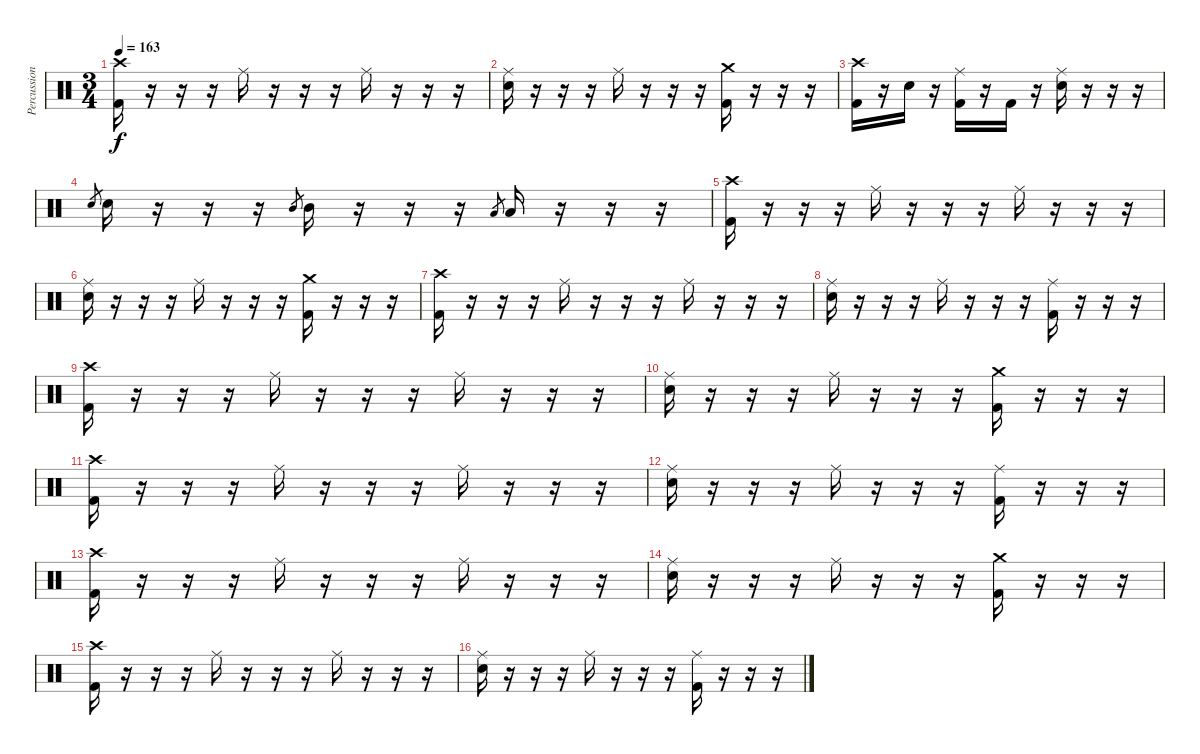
\track ("Percussion" "Percussion") {instrument percussion}
\staff {score}
\articulation defaults
\ts (3 4)
\tempo 163
\clef neutral
\ks c
("Crash high (hit)" "Kick (hit) 2").16{dy f} r.16 r.16 r.16 "Ride (middle)".16 r.16 r.16 r.16 "Ride (middle)".16 r.16 r.16 r.16 |
("Ride (middle)" "Snare (hit) 2").16 r.16 r.16 r.16 "Ride (middle)".16 r.16 r.16 r.16 ("Crash medium (hit)" "Kick (hit) 2").16 r.16 r.16 r.16 |
("Crash high (hit)" "Kick (hit) 2").16 r.16 "Snare (hit) 2".16 r.16 ("Ride (middle)" "Kick (hit) 2").16 r.16 "Kick (hit) 2".16 r.16 ("Ride (middle)" "Snare (hit) 2").16 r.16 r.16 r.16 |
"Snare (hit) 2".8{gr} "Snare (hit) 2".16 r.16 r.16 r.16 "Mid Tom (hit)".8{gr} "Mid Tom (hit)".16 r.16 r.16 r.16 "Low Tom (hit)".8{gr} "Low Tom (hit)".16 r.16 r.16 r.16 |
("Crash high (hit)" "Kick (hit) 2").16 r.16 r.16 r.16 "Ride (middle)".16 r.16 r.16 r.16 "Ride (middle)".16 r.16 r.16 r.16 |
("Ride (middle)" "Snare (hit) 2").16 r.16 r.16 r.16 "Ride (middle)".16 r.16 r.16 r.16 ("Crash medium (hit)" "Kick (hit) 2").16 r.16 r.16 r.16 |
("Crash high (hit)" "Kick (hit) 2").16 r.16 r.16 r.16 "Ride (middle)".16 r.16 r.16 r.16 "Ride (middle)".16 r.16 r.16 r.16 |
("Ride (middle)" "Snare (hit) 2").16 r.16 r.16 r.16 "Ride (middle)".16 r.16 r.16 r.16 ("Ride (middle)" "Kick (hit) 2").16 r.16 r.16 r.16 |
("Crash high (hit)" "Kick (hit) 2").16 r.16 r.16 r.16 "Ride (middle)".16 r.16 r.16 r.16 "Ride (middle)".16 r.16 r.16 r.16 |
("Ride (middle)" "Snare (hit) 2").16 r.16 r.16 r.16 "Ride (middle)".16 r.16 r.16 r.16 ("Crash medium (hit)" "Kick (hit) 2").16 r.16 r.16 r.16 |
("Crash high (hit)" "Kick (hit) 2").16 r.16 r.16 r.16 "Ride (middle)".16 r.16 r.16 r.16 "Ride (middle)".16 r.16 r.16 r.16 |
("Ride (middle)" "Snare (hit) 2").16 r.16 r.16 r.16 "Ride (middle)".16 r.16 r.16 r.16 ("Ride (middle)" "Kick (hit) 2").16 r.16 r.16 r.16 |
("Crash high (hit)" "Kick (hit) 2").16 r.16 r.16 r.16 "Ride (middle)".16 r.16 r.16 r.16 "Ride (middle)".16 r.16 r.16 r.16 |
("Ride (middle)" "Snare (hit) 2").16 r.16 r.16 r.16 "Ride (middle)".16 r.16 r.16 r.16 ("Crash medium (hit)" "Kick (hit) 2").16 r.16 r.16 r.16 |
("Crash high (hit)" "Kick (hit) 2").16 r.16 r.16 r.16 "Ride (middle)".16 r.16 r.16 r.16 "Ride (middle)".16 r.16 r.16 r.16 |
("Ride (middle)" "Snare (hit) 2").16 r.16 r.16 r.16 "Ride (middle)".16 r.16 r.16 r.16 ("Ride (middle)" "Kick (hit) 2").16 r.16 r.16 r.16
